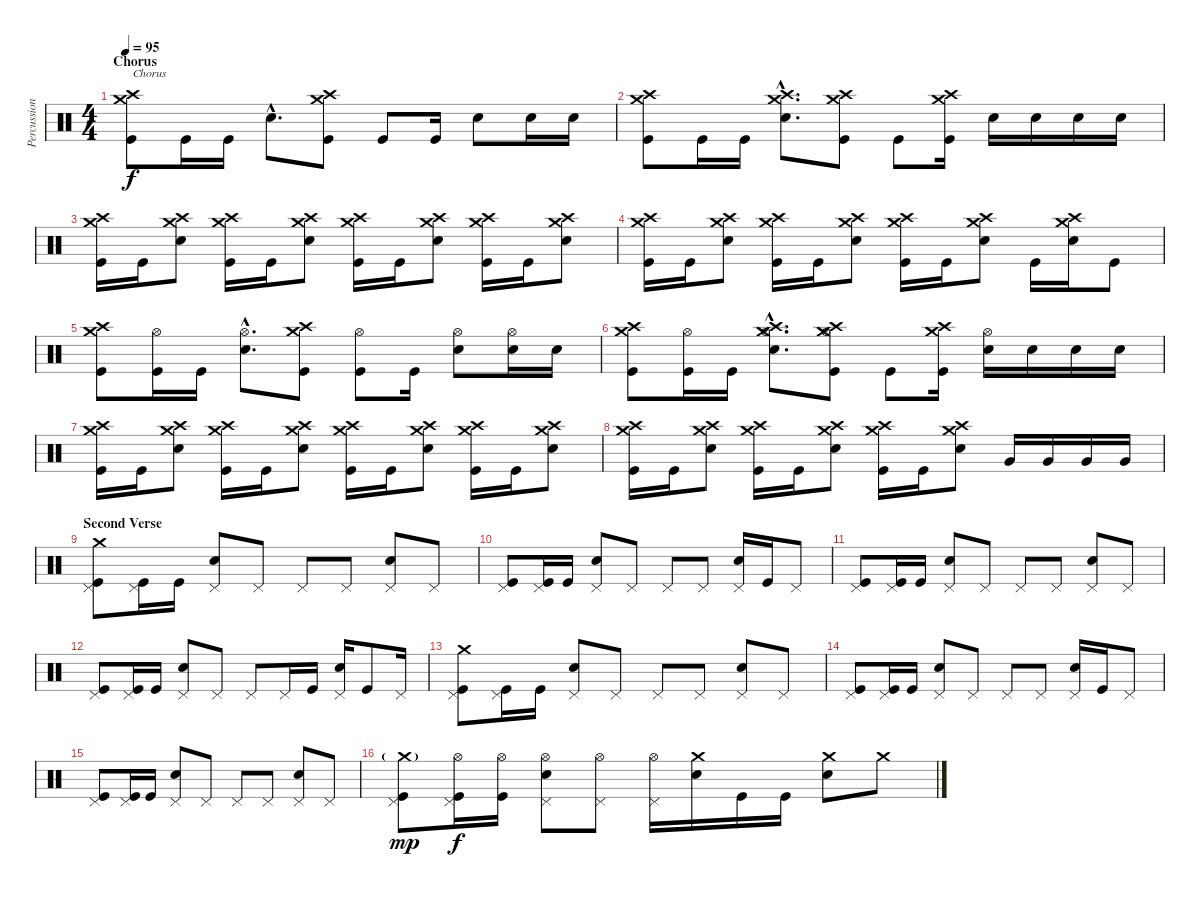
\track ("Percussion" "Percussion") {instrument percussion}
\staff {score}
\articulation defaults
\ts (4 4)
\section ("" "Chorus")
\tempo 95
\clef neutral
\ks c
("Crash medium (hit)" "Crash high (hit)" "Kick (hit)").8{txt "Chorus" dy f} "Kick (hit)".16 "Kick (hit)".16 "Electric Snare (hit)"{hac}.8{d} ("Crash high (hit)" "Crash medium (hit)" "Kick (hit)").8 "Kick (hit)".8 "Kick (hit)".16 "Electric Snare (hit)".8 "Electric Snare (hit)".16 "Electric Snare (hit)".16 |
("Crash medium (hit)" "Crash high (hit)" "Kick (hit)").8 "Kick (hit)".16 "Kick (hit)".16 ("Electric Snare (hit)"{hac} "Crash medium (hit)"{hac} "Crash high (hit)"{hac}).8{d} ("Crash high (hit)" "Crash medium (hit)" "Kick (hit)").8 "Kick (hit)".8 ("Crash medium (hit)" "Crash high (hit)" "Kick (hit)").16 "Electric Snare (hit)".16 "Electric Snare (hit)".16 "Electric Snare (hit)".16 "Electric Snare (hit)".16 |
("Crash medium (hit)" "Crash high (hit)" "Kick (hit)").16 "Kick (hit)".16 ("Crash high (hit)" "Electric Snare (hit)" "Crash medium (hit)").8 ("Crash high (hit)" "Crash medium (hit)" "Kick (hit)").16 "Kick (hit)".16 ("Crash high (hit)" "Electric Snare (hit)" "Crash medium (hit)").8 ("Crash high (hit)" "Crash medium (hit)" "Kick (hit)").16 "Kick (hit)".16 ("Crash high (hit)" "Electric Snare (hit)" "Crash medium (hit)").8 ("Crash high (hit)" "Crash medium (hit)" "Kick (hit)").16 "Kick (hit)".16 ("Electric Snare (hit)" "Crash medium (hit)" "Crash high (hit)").8 |
("Crash medium (hit)" "Crash high (hit)" "Kick (hit)").16 "Kick (hit)".16 ("Crash medium (hit)" "Electric Snare (hit)" "Crash high (hit)").8 ("Crash medium (hit)" "Crash high (hit)" "Kick (hit)").16 "Kick (hit)".16 ("Crash medium (hit)" "Electric Snare (hit)" "Crash high (hit)").8 ("Crash medium (hit)" "Crash high (hit)" "Kick (hit)").16 "Kick (hit)".16 ("Electric Snare (hit)" "Crash high (hit)" "Crash medium (hit)").8 "Kick (hit)".16 ("Electric Snare (hit)" "Crash high (hit)" "Crash medium (hit)").16 "Kick (hit)".8 |
("Crash medium (hit)" "Crash high (hit)" "Kick (hit)").8 ("Hi-Hat (open)" "Kick (hit)").16 "Kick (hit)".16 ("Hi-Hat (open)"{hac} "Electric Snare (hit)"{hac}).8{d} ("Crash high (hit)" "Crash medium (hit)" "Kick (hit)").8 ("Hi-Hat (open)" "Kick (hit)").8 "Kick (hit)".16 ("Hi-Hat (open)" "Electric Snare (hit)").8 ("Hi-Hat (open)" "Electric Snare (hit)").16 "Electric Snare (hit)".16 |
("Crash medium (hit)" "Crash high (hit)" "Kick (hit)").8 ("Hi-Hat (open)" "Kick (hit)").16 "Kick (hit)".16 ("Electric Snare (hit)"{hac} "Crash medium (hit)"{hac} "Crash high (hit)"{hac} "Hi-Hat (open)"{hac}).8{d} ("Crash high (hit)" "Crash medium (hit)" "Hi-Hat (open)" "Kick (hit)").8 "Kick (hit)".8 ("Crash medium (hit)" "Crash high (hit)" "Kick (hit)").16 ("Hi-Hat (open)" "Electric Snare (hit)").16 "Electric Snare (hit)".16 "Electric Snare (hit)".16 "Electric Snare (hit)".16 |
("Crash medium (hit)" "Crash high (hit)" "Kick (hit)").16 "Kick (hit)".16 ("Crash high (hit)" "Electric Snare (hit)" "Crash medium (hit)").8 ("Crash high (hit)" "Crash medium (hit)" "Kick (hit)").16 "Kick (hit)".16 ("Crash high (hit)" "Electric Snare (hit)" "Crash medium (hit)").8 ("Crash high (hit)" "Crash medium (hit)" "Kick (hit)").16 "Kick (hit)".16 ("Crash high (hit)" "Electric Snare (hit)" "Crash medium (hit)").8 ("Crash high (hit)" "Crash medium (hit)" "Kick (hit)").16 "Kick (hit)".16 ("Electric Snare (hit)" "Crash medium (hit)" "Crash high (hit)").8 |
("Crash medium (hit)" "Crash high (hit)" "Kick (hit)").16 "Kick (hit)".16 ("Crash medium (hit)" "Electric Snare (hit)" "Crash high (hit)").8 ("Crash medium (hit)" "Crash high (hit)" "Kick (hit)").16 "Kick (hit)".16 ("Crash high (hit)" "Electric Snare (hit)" "Crash medium (hit)").8 ("Crash high (hit)" "Crash medium (hit)" "Kick (hit)").16 "Kick (hit)".16 ("Crash high (hit)" "Electric Snare (hit)" "Crash medium (hit)").8 "Very Low Tom (hit)".16 "Very Low Tom (hit)".16 "Very Low Tom (hit)".16 "Very Low Tom (hit)".16 |
\section ("" "Second Verse")
("Pedal Hi-Hat (hit)" "Crash medium (hit)" "Kick (hit)").8 ("Pedal Hi-Hat (hit)" "Kick (hit)").16 "Kick (hit)".16 ("Pedal Hi-Hat (hit)" "Electric Snare (hit)").8 "Pedal Hi-Hat (hit)".8 "Pedal Hi-Hat (hit)".8 "Pedal Hi-Hat (hit)".8 ("Pedal Hi-Hat (hit)" "Electric Snare (hit)").8 "Pedal Hi-Hat (hit)".8 |
("Pedal Hi-Hat (hit)" "Kick (hit)").8 ("Pedal Hi-Hat (hit)" "Kick (hit)").16 "Kick (hit)".16 ("Pedal Hi-Hat (hit)" "Electric Snare (hit)").8 "Pedal Hi-Hat (hit)".8 "Pedal Hi-Hat (hit)".8 "Pedal Hi-Hat (hit)".8 ("Pedal Hi-Hat (hit)" "Electric Snare (hit)").16 "Kick (hit)".16 "Pedal Hi-Hat (hit)".8 |
("Pedal Hi-Hat (hit)" "Kick (hit)").8 ("Pedal Hi-Hat (hit)" "Kick (hit)").16 "Kick (hit)".16 ("Pedal Hi-Hat (hit)" "Electric Snare (hit)").8 "Pedal Hi-Hat (hit)".8 "Pedal Hi-Hat (hit)".8 "Pedal Hi-Hat (hit)".8 ("Pedal Hi-Hat (hit)" "Electric Snare (hit)").8 "Pedal Hi-Hat (hit)".8 |
("Pedal Hi-Hat (hit)" "Kick (hit)").8 ("Pedal Hi-Hat (hit)" "Kick (hit)").16 "Kick (hit)".16 ("Pedal Hi-Hat (hit)" "Electric Snare (hit)").8 "Pedal Hi-Hat (hit)".8 "Pedal Hi-Hat (hit)".8 "Pedal Hi-Hat (hit)".16 "Kick (hit)".16 ("Pedal Hi-Hat (hit)" "Electric Snare (hit)").16 "Kick (hit)".8 "Pedal Hi-Hat (hit)".16 |
("Pedal Hi-Hat (hit)" "Crash medium (hit)" "Kick (hit)").8 ("Pedal Hi-Hat (hit)" "Kick (hit)").16 "Kick (hit)".16 ("Pedal Hi-Hat (hit)" "Electric Snare (hit)").8 "Pedal Hi-Hat (hit)".8 "Pedal Hi-Hat (hit)".8 "Pedal Hi-Hat (hit)".8 ("Pedal Hi-Hat (hit)" "Electric Snare (hit)").8 "Pedal Hi-Hat (hit)".8 |
("Pedal Hi-Hat (hit)" "Kick (hit)").8 ("Pedal Hi-Hat (hit)" "Kick (hit)").16 "Kick (hit)".16 ("Pedal Hi-Hat (hit)" "Electric Snare (hit)").8 "Pedal Hi-Hat (hit)".8 "Pedal Hi-Hat (hit)".8 "Pedal Hi-Hat (hit)".8 ("Pedal Hi-Hat (hit)" "Electric Snare (hit)").16 "Kick (hit)".16 "Pedal Hi-Hat (hit)".8 |
("Pedal Hi-Hat (hit)" "Kick (hit)").8 ("Pedal Hi-Hat (hit)" "Kick (hit)").16 "Kick (hit)".16 ("Pedal Hi-Hat (hit)" "Electric Snare (hit)").8 "Pedal Hi-Hat (hit)".8 "Pedal Hi-Hat (hit)".8 "Pedal Hi-Hat (hit)".8 ("Pedal Hi-Hat (hit)" "Electric Snare (hit)").8 "Pedal Hi-Hat (hit)".8 |
("Pedal Hi-Hat (hit)" "Crash medium (hit)"{g} "Kick (hit)").8{dy mp} ("Pedal Hi-Hat (hit)" "Hi-Hat (open)" "Kick (hit)").16{dy f} ("Hi-Hat (open)" "Kick (hit)").16 ("Pedal Hi-Hat (hit)" "Electric Snare (hit)" "Hi-Hat (open)").8 ("Pedal Hi-Hat (hit)" "Hi-Hat (open)").8 ("Pedal Hi-Hat (hit)" "Hi-Hat (open)").16 ("Electric Snare (hit)" "Crash medium (hit)").16 "Kick (hit)".16 "Kick (hit)".16 ("Electric Snare (hit)" "Crash medium (hit)").8 "Crash medium (hit)".8
